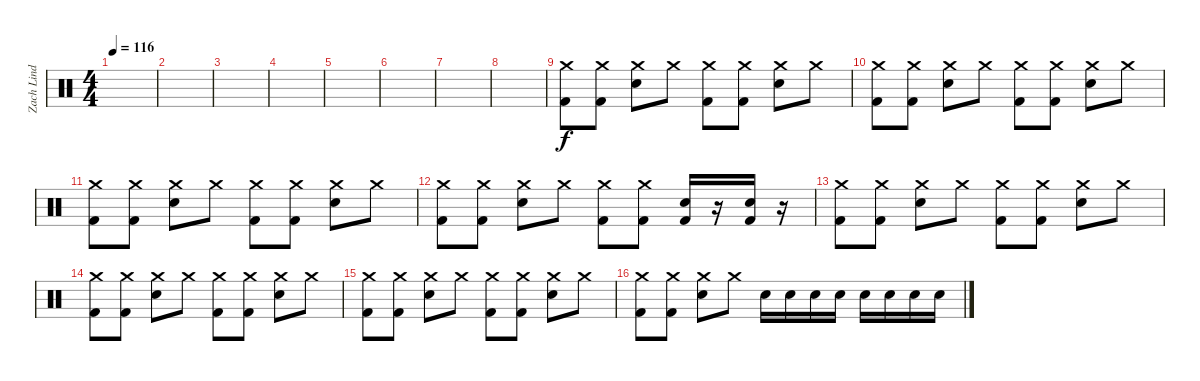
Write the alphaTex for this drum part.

\track ("Zach Lind  (Drums)" "Zach Lind ") {instrument percussion}
\staff {score}
\articulation defaults
\ts (4 4)
\tempo 116
\clef neutral
\ks c
|
|
|
|
|
|
|
|
("Crash medium (hit)" "Kick (hit) 2").8 ("Crash medium (hit)" "Kick (hit) 2").8 ("Crash medium (hit)" "Electric Snare (hit)").8 "Crash medium (hit)".8 ("Crash medium (hit)" "Kick (hit) 2").8 ("Crash medium (hit)" "Kick (hit) 2").8 ("Crash medium (hit)" "Electric Snare (hit)").8 "Crash medium (hit)".8 |
("Crash medium (hit)" "Kick (hit) 2").8 ("Crash medium (hit)" "Kick (hit) 2").8 ("Crash medium (hit)" "Electric Snare (hit)").8 "Crash medium (hit)".8 ("Crash medium (hit)" "Kick (hit) 2").8 ("Crash medium (hit)" "Kick (hit) 2").8 ("Crash medium (hit)" "Electric Snare (hit)").8 "Crash medium (hit)".8 |
("Crash medium (hit)" "Kick (hit) 2").8 ("Crash medium (hit)" "Kick (hit) 2").8 ("Crash medium (hit)" "Electric Snare (hit)").8 "Crash medium (hit)".8 ("Crash medium (hit)" "Kick (hit) 2").8 ("Crash medium (hit)" "Kick (hit) 2").8 ("Crash medium (hit)" "Electric Snare (hit)").8 "Crash medium (hit)".8 |
("Crash medium (hit)" "Kick (hit) 2").8 ("Crash medium (hit)" "Kick (hit) 2").8 ("Crash medium (hit)" "Electric Snare (hit)").8 "Crash medium (hit)".8 ("Crash medium (hit)" "Kick (hit) 2").8 ("Crash medium (hit)" "Kick (hit) 2").8 ("Kick (hit) 2" "Electric Snare (hit)").16 r.16 ("Kick (hit) 2" "Electric Snare (hit)").16 r.16 |
("Crash medium (hit)" "Kick (hit) 2").8 ("Crash medium (hit)" "Kick (hit) 2").8 ("Crash medium (hit)" "Electric Snare (hit)").8 "Crash medium (hit)".8 ("Crash medium (hit)" "Kick (hit) 2").8 ("Crash medium (hit)" "Kick (hit) 2").8 ("Crash medium (hit)" "Electric Snare (hit)").8 "Crash medium (hit)".8 |
("Crash medium (hit)" "Kick (hit) 2").8 ("Crash medium (hit)" "Kick (hit) 2").8 ("Crash medium (hit)" "Electric Snare (hit)").8 "Crash medium (hit)".8 ("Crash medium (hit)" "Kick (hit) 2").8 ("Crash medium (hit)" "Kick (hit) 2").8 ("Crash medium (hit)" "Electric Snare (hit)").8 "Crash medium (hit)".8 |
("Crash medium (hit)" "Kick (hit) 2").8 ("Crash medium (hit)" "Kick (hit) 2").8 ("Crash medium (hit)" "Electric Snare (hit)").8 "Crash medium (hit)".8 ("Crash medium (hit)" "Kick (hit) 2").8 ("Crash medium (hit)" "Kick (hit) 2").8 ("Crash medium (hit)" "Electric Snare (hit)").8 "Crash medium (hit)".8 |
("Crash medium (hit)" "Kick (hit) 2").8 ("Crash medium (hit)" "Kick (hit) 2").8 ("Crash medium (hit)" "Electric Snare (hit)").8 "Crash medium (hit)".8 "Electric Snare (hit)".16 "Electric Snare (hit)".16 "Electric Snare (hit)".16 "Electric Snare (hit)".16 "Electric Snare (hit)".16 "Electric Snare (hit)".16 "Electric Snare (hit)".16 "Electric Snare (hit)".16
